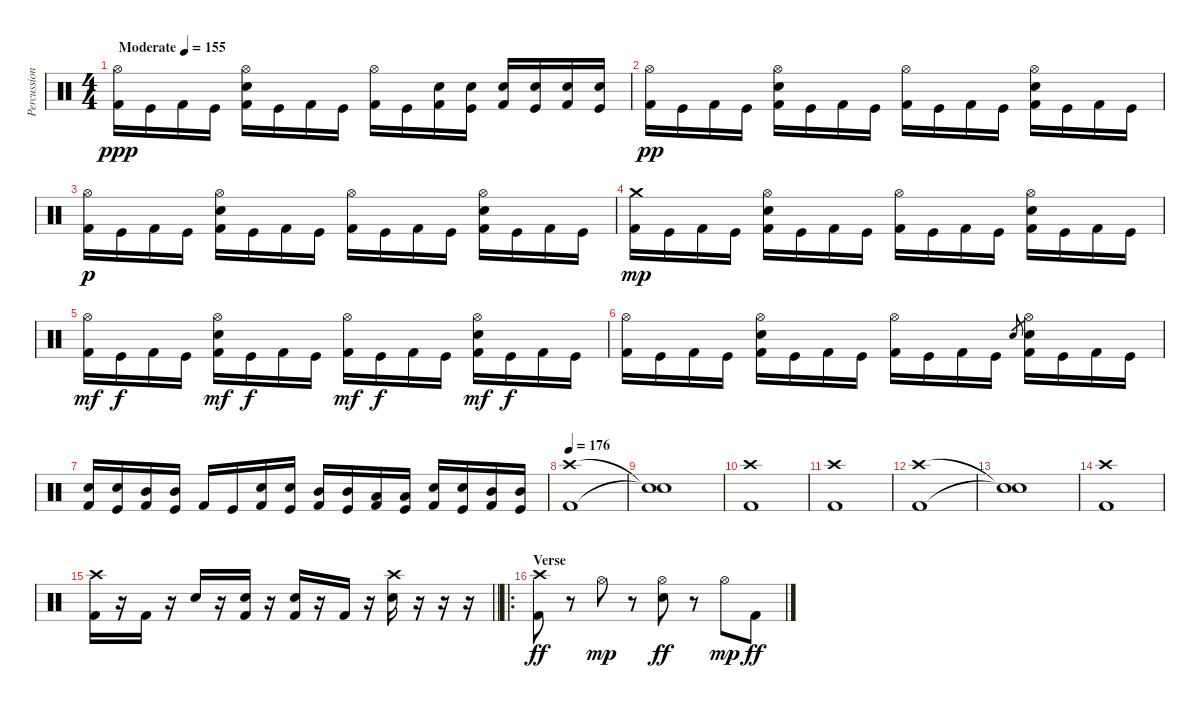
\track ("Percussion" "Percussion") {instrument percussion}
\staff {score}
\articulation defaults
\ts (4 4)
\tempo (155 "Moderate")
\clef neutral
\ks c
("Hi-Hat (open)" "Kick (hit) 2").16{dy ppp} "Kick (hit)".16 "Kick (hit) 2".16 "Kick (hit)".16 ("Hi-Hat (open)" "Electric Snare (hit)" "Kick (hit) 2").16 "Kick (hit)".16 "Kick (hit) 2".16 "Kick (hit)".16 ("Hi-Hat (open)" "Kick (hit) 2").16 "Kick (hit)".16 ("Electric Snare (hit)" "Kick (hit) 2").16 ("Electric Snare (hit)" "Kick (hit)").16 ("Electric Snare (hit)" "Kick (hit) 2").16 ("Electric Snare (hit)" "Kick (hit)").16 ("Electric Snare (hit)" "Kick (hit) 2").16 ("Electric Snare (hit)" "Kick (hit)").16 |
("Hi-Hat (open)" "Kick (hit) 2").16{dy pp} "Kick (hit)".16 "Kick (hit) 2".16 "Kick (hit)".16 ("Hi-Hat (open)" "Electric Snare (hit)" "Kick (hit) 2").16 "Kick (hit)".16 "Kick (hit) 2".16 "Kick (hit)".16 ("Hi-Hat (open)" "Kick (hit) 2").16 "Kick (hit)".16 "Kick (hit) 2".16 "Kick (hit)".16 ("Hi-Hat (open)" "Electric Snare (hit)" "Kick (hit) 2").16 "Kick (hit)".16 "Kick (hit) 2".16 "Kick (hit)".16 |
("Hi-Hat (open)" "Kick (hit) 2").16{dy p} "Kick (hit)".16 "Kick (hit) 2".16 "Kick (hit)".16 ("Hi-Hat (open)" "Electric Snare (hit)" "Kick (hit) 2").16 "Kick (hit)".16 "Kick (hit) 2".16 "Kick (hit)".16 ("Hi-Hat (open)" "Kick (hit) 2").16 "Kick (hit)".16 "Kick (hit) 2".16 "Kick (hit)".16 ("Hi-Hat (open)" "Electric Snare (hit)" "Kick (hit) 2").16 "Kick (hit)".16 "Kick (hit) 2".16 "Kick (hit)".16 |
("Crash medium (hit)" "Kick (hit) 2").16{dy mp} "Kick (hit)".16 "Kick (hit) 2".16 "Kick (hit)".16 ("Hi-Hat (open)" "Electric Snare (hit)" "Kick (hit) 2").16 "Kick (hit)".16 "Kick (hit) 2".16 "Kick (hit)".16 ("Hi-Hat (open)" "Kick (hit) 2").16 "Kick (hit)".16 "Kick (hit) 2".16 "Kick (hit)".16 ("Hi-Hat (open)" "Electric Snare (hit)" "Kick (hit) 2").16 "Kick (hit)".16 "Kick (hit) 2".16 "Kick (hit)".16 |
("Hi-Hat (open)" "Kick (hit) 2").16{dy mf} "Kick (hit)".16{dy f} "Kick (hit) 2".16 "Kick (hit)".16 ("Hi-Hat (open)" "Electric Snare (hit)" "Kick (hit) 2").16{dy mf} "Kick (hit)".16{dy f} "Kick (hit) 2".16 "Kick (hit)".16 ("Hi-Hat (open)" "Kick (hit) 2").16{dy mf} "Kick (hit)".16{dy f} "Kick (hit) 2".16 "Kick (hit)".16 ("Hi-Hat (open)" "Electric Snare (hit)" "Kick (hit) 2").16{dy mf} "Kick (hit)".16{dy f} "Kick (hit) 2".16 "Kick (hit)".16 |
("Hi-Hat (open)" "Kick (hit) 2").16 "Kick (hit)".16 "Kick (hit) 2".16 "Kick (hit)".16 ("Hi-Hat (open)" "Electric Snare (hit)" "Kick (hit) 2").16 "Kick (hit)".16 "Kick (hit) 2".16 "Kick (hit)".16 ("Hi-Hat (open)" "Kick (hit) 2").16 "Kick (hit)".16 "Kick (hit) 2".16 "Kick (hit)".16 "Electric Snare (hit)".8{gr} ("Hi-Hat (open)" "Electric Snare (hit)" "Kick (hit) 2").16 "Kick (hit)".16 "Kick (hit) 2".16 "Kick (hit)".16 |
("Electric Snare (hit)" "Kick (hit) 2").16 ("Electric Snare (hit)" "Kick (hit)").16 ("Mid Tom (hit)" "Kick (hit) 2").16 ("Mid Tom (hit)" "Kick (hit)").16 "Kick (hit) 2".16 "Kick (hit)".16 ("Electric Snare (hit)" "Kick (hit) 2").16 ("Electric Snare (hit)" "Kick (hit)").16 ("Mid Tom (hit)" "Kick (hit) 2").16 ("Mid Tom (hit)" "Kick (hit)").16 ("Low Tom (hit)" "Kick (hit) 2").16 ("Low Tom (hit)" "Kick (hit)").16 ("Electric Snare (hit)" "Kick (hit) 2").16 ("Electric Snare (hit)" "Kick (hit)").16 ("Mid Tom (hit)" "Kick (hit) 2").16 ("Mid Tom (hit)" "Kick (hit)").16 |
\tempo 176
("Crash high (hit)" "Kick (hit) 2").1 |
("Snare (hit)"{t} "Snare (hit)"{t}).1 |
("Crash high (hit)" "Kick (hit) 2").1 |
("Crash high (hit)" "Kick (hit) 2").1 |
("Crash high (hit)" "Kick (hit) 2").1 |
("Snare (hit)"{t} "Snare (hit)"{t}).1 |
("Crash high (hit)" "Kick (hit) 2").1 |
\barLineRight lightlight
("Crash high (hit)" "Kick (hit) 2").16 r.16 "Kick (hit) 2".16 r.16 "Electric Snare (hit)".16 r.16 ("Electric Snare (hit)" "Kick (hit) 2").16 r.16 ("Electric Snare (hit)" "Kick (hit) 2").16 r.16 "Kick (hit) 2".16 r.16 ("Crash high (hit)" "Electric Snare (hit)").16 r.16 r.16 r.16 |
\ro
\section ("" "Verse")
("Crash high (hit)" "Kick (hit) 2").8{dy ff} r.8 "Hi-Hat (open)".8{dy mp} r.8 ("Hi-Hat (open)" "Electric Snare (hit)").8{dy ff} r.8 "Hi-Hat (open)".8{dy mp} "Kick (hit) 2".8{dy ff}
